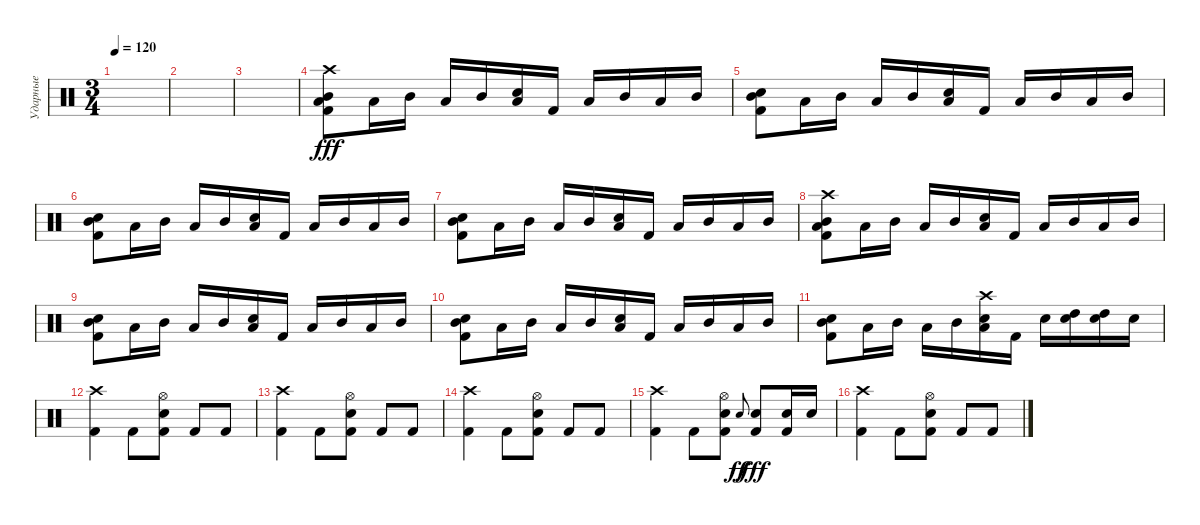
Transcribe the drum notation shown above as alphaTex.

\track ("Ударные" "Ударные") {instrument percussion}
\staff {score}
\articulation defaults
\ts (3 4)
\tempo 120
\clef neutral
\ks c
|
|
|
("Crash high (hit)" "Mid Tom (hit)" "Low Floor Tom (hit)" "Kick (hit) 2").8{dy fff} "Low Tom (hit)".16 "Mid Tom (hit)".16 "Low Tom (hit)".16 "Mid Tom (hit)".16 ("Low Tom (hit)" "Electric Snare (hit)").16 "Kick (hit) 2".16 "Low Tom (hit)".16 "Mid Tom (hit)".16 "Low Tom (hit)".16 "Mid Tom (hit)".16 |
("Mid Tom (hit)" "Electric Snare (hit)" "Kick (hit) 2").8 "Low Tom (hit)".16 "Mid Tom (hit)".16 "Low Tom (hit)".16 "Mid Tom (hit)".16 ("Low Tom (hit)" "Electric Snare (hit)").16 "Kick (hit) 2".16 "Low Tom (hit)".16 "Mid Tom (hit)".16 "Low Tom (hit)".16 "Mid Tom (hit)".16 |
("Mid Tom (hit)" "Electric Snare (hit)" "Kick (hit) 2").8 "Low Tom (hit)".16 "Mid Tom (hit)".16 "Low Tom (hit)".16 "Mid Tom (hit)".16 ("Low Tom (hit)" "Electric Snare (hit)").16 "Kick (hit) 2".16 "Low Tom (hit)".16 "Mid Tom (hit)".16 "Low Tom (hit)".16 "Mid Tom (hit)".16 |
("Mid Tom (hit)" "Electric Snare (hit)" "Kick (hit) 2").8 "Low Tom (hit)".16 "Mid Tom (hit)".16 "Low Tom (hit)".16 "Mid Tom (hit)".16 ("Low Tom (hit)" "Electric Snare (hit)").16 "Kick (hit) 2".16 "Low Tom (hit)".16 "Mid Tom (hit)".16 "Low Tom (hit)".16 "Mid Tom (hit)".16 |
("Crash high (hit)" "Mid Tom (hit)" "Low Floor Tom (hit)" "Kick (hit) 2").8 "Low Tom (hit)".16 "Mid Tom (hit)".16 "Low Tom (hit)".16 "Mid Tom (hit)".16 ("Low Tom (hit)" "Electric Snare (hit)").16 "Kick (hit) 2".16 "Low Tom (hit)".16 "Mid Tom (hit)".16 "Low Tom (hit)".16 "Mid Tom (hit)".16 |
("Mid Tom (hit)" "Electric Snare (hit)" "Kick (hit) 2").8 "Low Tom (hit)".16 "Mid Tom (hit)".16 "Low Tom (hit)".16 "Mid Tom (hit)".16 ("Low Tom (hit)" "Electric Snare (hit)").16 "Kick (hit) 2".16 "Low Tom (hit)".16 "Mid Tom (hit)".16 "Low Tom (hit)".16 "Mid Tom (hit)".16 |
("Mid Tom (hit)" "Electric Snare (hit)" "Kick (hit) 2").8 "Low Tom (hit)".16 "Mid Tom (hit)".16 "Low Tom (hit)".16 "Mid Tom (hit)".16 ("Low Tom (hit)" "Electric Snare (hit)").16 "Kick (hit) 2".16 "Low Tom (hit)".16 "Mid Tom (hit)".16 "Low Tom (hit)".16 "Mid Tom (hit)".16 |
("Mid Tom (hit)" "Electric Snare (hit)" "Kick (hit) 2").8 "Low Tom (hit)".16 "Mid Tom (hit)".16 "Low Tom (hit)".16 "Mid Tom (hit)".16 ("Crash high (hit)" "Low Tom (hit)" "Electric Snare (hit)").16 "Kick (hit) 2".16 "Electric Snare (hit)".16 ("Electric Snare (hit)" "High Tom (hit)").16 ("Electric Snare (hit)" "High Tom (hit)").16 "Electric Snare (hit)".16 |
("Crash high (hit)" "Kick (hit) 2").4 "Kick (hit) 2".8 ("Kick (hit) 2" "Electric Snare (hit)" "Hi-Hat (open)").8 "Kick (hit) 2".8 "Kick (hit) 2".8 |
("Crash high (hit)" "Kick (hit) 2").4 "Kick (hit) 2".8 ("Kick (hit) 2" "Electric Snare (hit)" "Hi-Hat (open)").8 "Kick (hit) 2".8 "Kick (hit) 2".8 |
("Crash high (hit)" "Kick (hit) 2").4 "Kick (hit) 2".8 ("Kick (hit) 2" "Electric Snare (hit)" "Hi-Hat (open)").8 "Kick (hit) 2".8 "Kick (hit) 2".8 |
("Crash high (hit)" "Kick (hit) 2").4 "Kick (hit) 2".8 ("Kick (hit) 2" "Electric Snare (hit)" "Hi-Hat (open)").8 "Electric Snare (hit)".8{gr onbeat dy ff} ("Kick (hit) 2" "Electric Snare (hit)").8{dy fff} ("Kick (hit) 2" "Electric Snare (hit)").16 "Electric Snare (hit)".16 |
("Crash high (hit)" "Kick (hit) 2").4 "Kick (hit) 2".8 ("Kick (hit) 2" "Electric Snare (hit)" "Hi-Hat (open)").8 "Kick (hit) 2".8 "Kick (hit) 2".8
